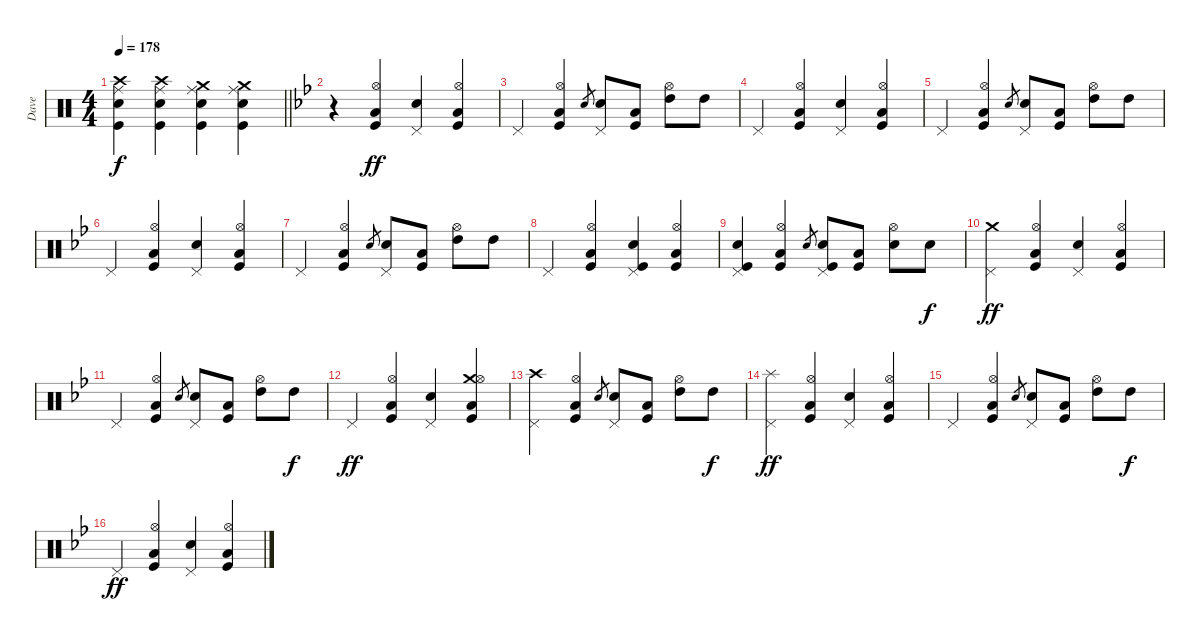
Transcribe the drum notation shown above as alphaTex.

\track ("Dave" "Dave") {instrument percussion}
\staff {score}
\articulation defaults
\ts (4 4)
\tempo 178
\clef neutral
\barLineRight lightlight
\ks c
("Crash high (hit)" "Ride (middle)" "Snare (hit) 2" "Kick (hit)").4{dy f} ("Crash high (hit)" "Ride (middle)" "Snare (hit) 2" "Kick (hit)").4 ("Crash medium (hit)" "Ride (middle)" "Snare (hit) 2" "Kick (hit)").4 ("Crash medium (hit)" "Ride (middle)" "Snare (hit) 2" "Kick (hit)").4 |
\ks gminor
r.4 ("Hi-Hat (open)" "Low Floor Tom (hit)" "Kick (hit)").4{dy ff} ("Pedal Hi-Hat (hit)" "Snare (hit) 2").4 ("Hi-Hat (open)" "Low Floor Tom (hit)" "Kick (hit)").4 |
"Pedal Hi-Hat (hit)".4 ("Hi-Hat (open)" "Low Floor Tom (hit)" "Kick (hit)").4 "Snare (hit) 2".8{gr} ("Pedal Hi-Hat (hit)" "Snare (hit) 2").8 ("Low Floor Tom (hit)" "Kick (hit)").8 ("High Tom (hit)" "Hi-Hat (open)").8 "High Tom (hit)".8 |
"Pedal Hi-Hat (hit)".4 ("Hi-Hat (open)" "Low Floor Tom (hit)" "Kick (hit)").4 ("Pedal Hi-Hat (hit)" "Snare (hit) 2").4 ("Hi-Hat (open)" "Low Floor Tom (hit)" "Kick (hit)").4 |
"Pedal Hi-Hat (hit)".4 ("Hi-Hat (open)" "Low Floor Tom (hit)" "Kick (hit)").4 "Snare (hit) 2".8{gr} ("Pedal Hi-Hat (hit)" "Snare (hit) 2").8 ("Low Floor Tom (hit)" "Kick (hit)").8 ("High Tom (hit)" "Hi-Hat (open)").8 "High Tom (hit)".8 |
"Pedal Hi-Hat (hit)".4 ("Hi-Hat (open)" "Low Floor Tom (hit)" "Kick (hit)").4 ("Pedal Hi-Hat (hit)" "Snare (hit) 2").4 ("Hi-Hat (open)" "Low Floor Tom (hit)" "Kick (hit)").4 |
"Pedal Hi-Hat (hit)".4 ("Hi-Hat (open)" "Low Floor Tom (hit)" "Kick (hit)").4 "Snare (hit) 2".8{gr} ("Pedal Hi-Hat (hit)" "Snare (hit) 2").8 ("Low Floor Tom (hit)" "Kick (hit)").8 ("High Tom (hit)" "Hi-Hat (open)").8 "High Tom (hit)".8 |
"Pedal Hi-Hat (hit)".4 ("Hi-Hat (open)" "Low Floor Tom (hit)" "Kick (hit)").4 ("Pedal Hi-Hat (hit)" "Snare (hit) 2" "Kick (hit)").4 ("Hi-Hat (open)" "Low Floor Tom (hit)" "Kick (hit)").4 |
("Pedal Hi-Hat (hit)" "Snare (hit) 2" "Kick (hit)").4 ("Hi-Hat (open)" "Low Floor Tom (hit)" "Kick (hit)").4 "Snare (hit) 2".8{gr} ("Pedal Hi-Hat (hit)" "Snare (hit) 2" "Kick (hit)").8 ("Low Floor Tom (hit)" "Kick (hit)").8 ("Hi-Hat (open)" "Snare (hit) 2").8 "Snare (hit) 2".8{dy f} |
("Crash medium (hit)" "Pedal Hi-Hat (hit)").4{dy ff} ("Hi-Hat (open)" "Low Floor Tom (hit)" "Kick (hit)").4 ("Pedal Hi-Hat (hit)" "Snare (hit) 2").4 ("Hi-Hat (open)" "Low Floor Tom (hit)" "Kick (hit)").4 |
"Pedal Hi-Hat (hit)".4 ("Hi-Hat (open)" "Low Floor Tom (hit)" "Kick (hit)").4 "Snare (hit) 2".8{gr} ("Pedal Hi-Hat (hit)" "Snare (hit) 2").8 ("Low Floor Tom (hit)" "Kick (hit)").8 ("High Tom (hit)" "Hi-Hat (open)").8 "High Tom (hit)".8{dy f} |
"Pedal Hi-Hat (hit)".4{dy ff} ("Hi-Hat (open)" "Low Floor Tom (hit)" "Kick (hit)").4 ("Pedal Hi-Hat (hit)" "Snare (hit) 2").4 ("Crash medium (hit)" "Hi-Hat (open)" "Low Floor Tom (hit)" "Kick (hit)").4 |
("Crash high (hit)" "Pedal Hi-Hat (hit)").4 ("Hi-Hat (open)" "Low Floor Tom (hit)" "Kick (hit)").4 "Snare (hit) 2".8{gr} ("Pedal Hi-Hat (hit)" "Snare (hit) 2").8 ("Low Floor Tom (hit)" "Kick (hit)").8 ("High Tom (hit)" "Hi-Hat (open)").8 "High Tom (hit)".8{dy f} |
("Splash (hit)" "Pedal Hi-Hat (hit)").4{dy ff} ("Hi-Hat (open)" "Low Floor Tom (hit)" "Kick (hit)").4 ("Pedal Hi-Hat (hit)" "Snare (hit) 2").4 ("Hi-Hat (open)" "Low Floor Tom (hit)" "Kick (hit)").4 |
"Pedal Hi-Hat (hit)".4 ("Hi-Hat (open)" "Low Floor Tom (hit)" "Kick (hit)").4 "Snare (hit) 2".8{gr} ("Pedal Hi-Hat (hit)" "Snare (hit) 2").8 ("Low Floor Tom (hit)" "Kick (hit)").8 ("High Tom (hit)" "Hi-Hat (open)").8 "High Tom (hit)".8{dy f} |
"Pedal Hi-Hat (hit)".4{dy ff} ("Hi-Hat (open)" "Low Floor Tom (hit)" "Kick (hit)").4 ("Pedal Hi-Hat (hit)" "Snare (hit) 2").4 ("Hi-Hat (open)" "Low Floor Tom (hit)" "Kick (hit)").4
